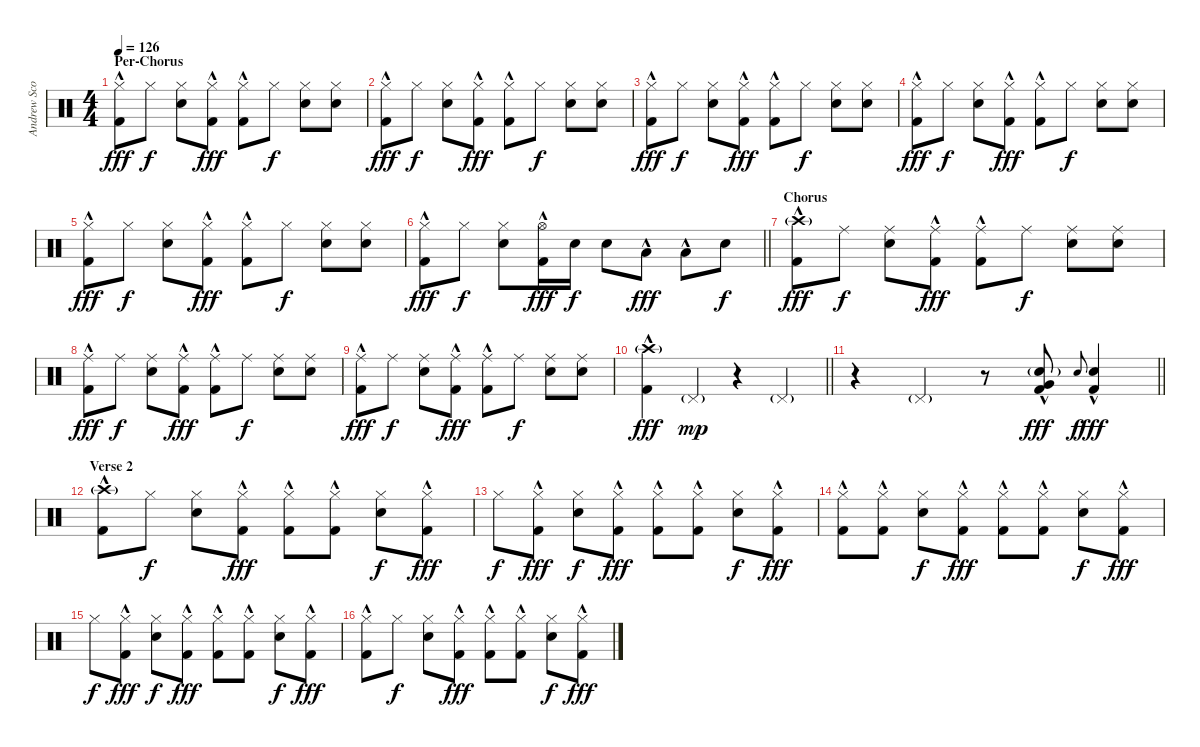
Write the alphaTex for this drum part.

\track ("Andrew Scott" "Andrew Sco") {instrument percussion}
\staff {score}
\articulation defaults
\ts (4 4)
\section ("" "Per-Chorus")
\tempo 126
\clef neutral
\ks c
("Hi-Hat (closed)" "Kick (hit) 2"{hac}).8{dy fff} "Hi-Hat (closed)".8{dy f} ("Hi-Hat (closed)" "Snare (hit) 2").8 ("Hi-Hat (closed)" "Kick (hit) 2"{hac}).8{dy fff} ("Hi-Hat (closed)" "Kick (hit) 2"{hac}).8 "Hi-Hat (closed)".8{dy f} ("Hi-Hat (closed)" "Snare (hit) 2").8 ("Hi-Hat (closed)" "Snare (hit) 2").8 |
("Hi-Hat (closed)" "Kick (hit) 2"{hac}).8{dy fff} "Hi-Hat (closed)".8{dy f} ("Hi-Hat (closed)" "Snare (hit) 2").8 ("Hi-Hat (closed)" "Kick (hit) 2"{hac}).8{dy fff} ("Hi-Hat (closed)" "Kick (hit) 2"{hac}).8 "Hi-Hat (closed)".8{dy f} ("Hi-Hat (closed)" "Snare (hit) 2").8 ("Hi-Hat (closed)" "Snare (hit) 2").8 |
("Hi-Hat (closed)" "Kick (hit) 2"{hac}).8{dy fff} "Hi-Hat (closed)".8{dy f} ("Hi-Hat (closed)" "Snare (hit) 2").8 ("Hi-Hat (closed)" "Kick (hit) 2"{hac}).8{dy fff} ("Hi-Hat (closed)" "Kick (hit) 2"{hac}).8 "Hi-Hat (closed)".8{dy f} ("Hi-Hat (closed)" "Snare (hit) 2").8 ("Hi-Hat (closed)" "Snare (hit) 2").8 |
("Hi-Hat (closed)" "Kick (hit) 2"{hac}).8{dy fff} "Hi-Hat (closed)".8{dy f} ("Hi-Hat (closed)" "Snare (hit) 2").8 ("Hi-Hat (closed)" "Kick (hit) 2"{hac}).8{dy fff} ("Hi-Hat (closed)" "Kick (hit) 2"{hac}).8 "Hi-Hat (closed)".8{dy f} ("Hi-Hat (closed)" "Snare (hit) 2").8 ("Hi-Hat (closed)" "Snare (hit) 2").8 |
("Hi-Hat (closed)" "Kick (hit) 2"{hac}).8{dy fff} "Hi-Hat (closed)".8{dy f} ("Hi-Hat (closed)" "Snare (hit) 2").8 ("Hi-Hat (closed)" "Kick (hit) 2"{hac}).8{dy fff} ("Hi-Hat (closed)" "Kick (hit) 2"{hac}).8 "Hi-Hat (closed)".8{dy f} ("Hi-Hat (closed)" "Snare (hit) 2").8 ("Hi-Hat (closed)" "Snare (hit) 2").8 |
\barLineRight lightlight
("Hi-Hat (closed)" "Kick (hit) 2"{hac}).8{dy fff} "Hi-Hat (closed)".8{dy f} ("Hi-Hat (closed)" "Snare (hit) 2").8 ("Hi-Hat (open)" "Kick (hit) 2"{hac}).16{dy fff} "Snare (hit) 2".16{dy f} "Snare (hit) 2".8 "Low Tom (hit)"{hac}.8{dy fff} "Low Tom (hit)"{hac}.8 "Snare (hit) 2".8{dy f} |
\section ("" "Chorus")
("Crash high (hit)"{g} "Kick (hit) 2"{hac}).8{dy fff} "Ride (middle)".8{dy f} ("Ride (middle)" "Snare (hit) 2").8 ("Ride (middle)" "Kick (hit) 2"{hac}).8{dy fff} ("Ride (middle)" "Kick (hit) 2"{hac}).8 "Ride (middle)".8{dy f} ("Ride (middle)" "Snare (hit) 2").8 ("Ride (middle)" "Snare (hit) 2").8 |
("Ride (middle)" "Kick (hit) 2"{hac}).8{dy fff} "Ride (middle)".8{dy f} ("Ride (middle)" "Snare (hit) 2").8 ("Ride (middle)" "Kick (hit) 2"{hac}).8{dy fff} ("Ride (middle)" "Kick (hit) 2"{hac}).8 "Ride (middle)".8{dy f} ("Ride (middle)" "Snare (hit) 2").8 ("Ride (middle)" "Snare (hit) 2").8 |
("Ride (middle)" "Kick (hit) 2"{hac}).8{dy fff} "Ride (middle)".8{dy f} ("Ride (middle)" "Snare (hit) 2").8 ("Ride (middle)" "Kick (hit) 2"{hac}).8{dy fff} ("Ride (middle)" "Kick (hit) 2"{hac}).8 "Ride (middle)".8{dy f} ("Ride (middle)" "Snare (hit) 2").8 ("Ride (middle)" "Snare (hit) 2").8 |
\barLineRight lightlight
("Crash high (hit)"{g} "Kick (hit) 2"{hac}).4{dy fff} "Pedal Hi-Hat (hit)"{g}.4{dy mp} r.4 "Pedal Hi-Hat (hit)"{g}.4 |
\barLineRight lightlight
r.4 "Pedal Hi-Hat (hit)"{g}.4 r.8 ("Snare (hit) 2"{g} "Very Low Tom (hit)" "Kick (hit) 2"{hac}).8{dy fff} "Snare (hit) 2".8{gr onbeat dy f} ("Snare (hit) 2" "Kick (hit) 2"{hac}).4{dy fff} |
\section ("" "Verse 2")
("Crash high (hit)"{g} "Kick (hit) 2"{hac}).8 "Hi-Hat (closed)".8{dy f} ("Hi-Hat (closed)" "Snare (hit) 2").8 ("Hi-Hat (closed)" "Kick (hit) 2"{hac}).8{dy fff} ("Hi-Hat (closed)" "Kick (hit) 2"{hac}).8 ("Hi-Hat (closed)" "Kick (hit) 2"{hac}).8 ("Hi-Hat (closed)" "Snare (hit) 2").8{dy f} ("Hi-Hat (closed)" "Kick (hit) 2"{hac}).8{dy fff} |
"Hi-Hat (closed)".8{dy f} ("Hi-Hat (closed)" "Kick (hit) 2"{hac}).8{dy fff} ("Hi-Hat (closed)" "Snare (hit) 2").8{dy f} ("Hi-Hat (closed)" "Kick (hit) 2"{hac}).8{dy fff} ("Hi-Hat (closed)" "Kick (hit) 2"{hac}).8 ("Hi-Hat (closed)" "Kick (hit) 2"{hac}).8 ("Hi-Hat (closed)" "Snare (hit) 2").8{dy f} ("Hi-Hat (closed)" "Kick (hit) 2"{hac}).8{dy fff} |
("Hi-Hat (closed)" "Kick (hit) 2"{hac}).8 ("Hi-Hat (closed)" "Kick (hit) 2"{hac}).8 ("Hi-Hat (closed)" "Snare (hit) 2").8{dy f} ("Hi-Hat (closed)" "Kick (hit) 2"{hac}).8{dy fff} ("Hi-Hat (closed)" "Kick (hit) 2"{hac}).8 ("Hi-Hat (closed)" "Kick (hit) 2"{hac}).8 ("Hi-Hat (closed)" "Snare (hit) 2").8{dy f} ("Hi-Hat (closed)" "Kick (hit) 2"{hac}).8{dy fff} |
"Hi-Hat (closed)".8{dy f} ("Hi-Hat (closed)" "Kick (hit) 2"{hac}).8{dy fff} ("Hi-Hat (closed)" "Snare (hit) 2").8{dy f} ("Hi-Hat (closed)" "Kick (hit) 2"{hac}).8{dy fff} ("Hi-Hat (closed)" "Kick (hit) 2"{hac}).8 ("Hi-Hat (closed)" "Kick (hit) 2"{hac}).8 ("Hi-Hat (closed)" "Snare (hit) 2").8{dy f} ("Hi-Hat (closed)" "Kick (hit) 2"{hac}).8{dy fff} |
("Hi-Hat (closed)" "Kick (hit) 2"{hac}).8 "Hi-Hat (closed)".8{dy f} ("Hi-Hat (closed)" "Snare (hit) 2").8 ("Hi-Hat (closed)" "Kick (hit) 2"{hac}).8{dy fff} ("Hi-Hat (closed)" "Kick (hit) 2"{hac}).8 ("Hi-Hat (closed)" "Kick (hit) 2"{hac}).8 ("Hi-Hat (closed)" "Snare (hit) 2").8{dy f} ("Hi-Hat (closed)" "Kick (hit) 2"{hac}).8{dy fff}
